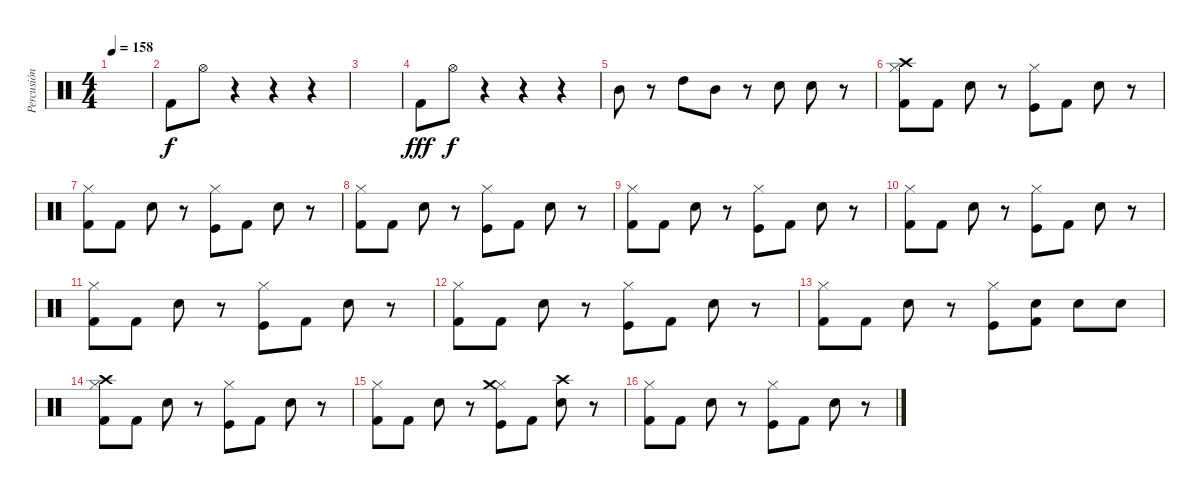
\track ("Percusión" "Percusión") {instrument percussion}
\staff {score}
\articulation defaults
\ts (4 4)
\tempo 158
\clef neutral
\ks c
|
"Kick (hit) 2".8 "Hi-Hat (open)".8{dy f} r.4 r.4 r.4 |
|
"Kick (hit) 2".8{dy fff} "Hi-Hat (open)".8{dy f} r.4 r.4 r.4 |
"Mid Tom (hit)".8 r.8 "High Tom (hit)".8 "Mid Tom (hit)".8 r.8 "Electric Snare (hit)".8 "Snare (hit) 2".8 r.8 |
("Hi-Hat (closed)" "Kick (hit) 2" "Crash high (hit)").8 "Kick (hit) 2".8 "Electric Snare (hit)".8 r.8 ("Hi-Hat (closed)" "Kick (hit)").8 "Kick (hit) 2".8 "Electric Snare (hit)".8 r.8 |
("Hi-Hat (closed)" "Kick (hit) 2").8 "Kick (hit) 2".8 "Electric Snare (hit)".8 r.8 ("Hi-Hat (closed)" "Kick (hit)").8 "Kick (hit) 2".8 "Electric Snare (hit)".8 r.8 |
("Hi-Hat (closed)" "Kick (hit) 2").8 "Kick (hit) 2".8 "Electric Snare (hit)".8 r.8 ("Hi-Hat (closed)" "Kick (hit)").8 "Kick (hit) 2".8 "Electric Snare (hit)".8 r.8 |
("Hi-Hat (closed)" "Kick (hit) 2").8 "Kick (hit) 2".8 "Electric Snare (hit)".8 r.8 ("Hi-Hat (closed)" "Kick (hit)").8 "Kick (hit) 2".8 "Electric Snare (hit)".8 r.8 |
("Hi-Hat (closed)" "Kick (hit) 2").8 "Kick (hit) 2".8 "Electric Snare (hit)".8 r.8 ("Hi-Hat (closed)" "Kick (hit)").8 "Kick (hit) 2".8 "Electric Snare (hit)".8 r.8 |
("Hi-Hat (closed)" "Kick (hit) 2").8 "Kick (hit) 2".8 "Electric Snare (hit)".8 r.8 ("Hi-Hat (closed)" "Kick (hit)").8 "Kick (hit) 2".8 "Electric Snare (hit)".8 r.8 |
("Hi-Hat (closed)" "Kick (hit) 2").8 "Kick (hit) 2".8 "Electric Snare (hit)".8 r.8 ("Hi-Hat (closed)" "Kick (hit)").8 "Kick (hit) 2".8 "Electric Snare (hit)".8 r.8 |
("Hi-Hat (closed)" "Kick (hit) 2").8 "Kick (hit) 2".8 "Electric Snare (hit)".8 r.8 ("Hi-Hat (closed)" "Kick (hit)").8 ("Electric Snare (hit)" "Kick (hit) 2").8 "Electric Snare (hit)".8 "Electric Snare (hit)".8 |
("Hi-Hat (closed)" "Kick (hit) 2" "Crash high (hit)").8 "Kick (hit) 2".8 "Electric Snare (hit)".8 r.8 ("Hi-Hat (closed)" "Kick (hit)").8 "Kick (hit) 2".8 "Electric Snare (hit)".8 r.8 |
("Hi-Hat (closed)" "Kick (hit) 2").8 "Kick (hit) 2".8 "Electric Snare (hit)".8 r.8 ("Hi-Hat (closed)" "Kick (hit)" "Crash medium (hit)").8 "Kick (hit) 2".8 ("Electric Snare (hit)" "Crash high (hit)").8 r.8 |
("Hi-Hat (closed)" "Kick (hit) 2").8 "Kick (hit) 2".8 "Electric Snare (hit)".8 r.8 ("Hi-Hat (closed)" "Kick (hit)").8 "Kick (hit) 2".8 "Electric Snare (hit)".8 r.8
